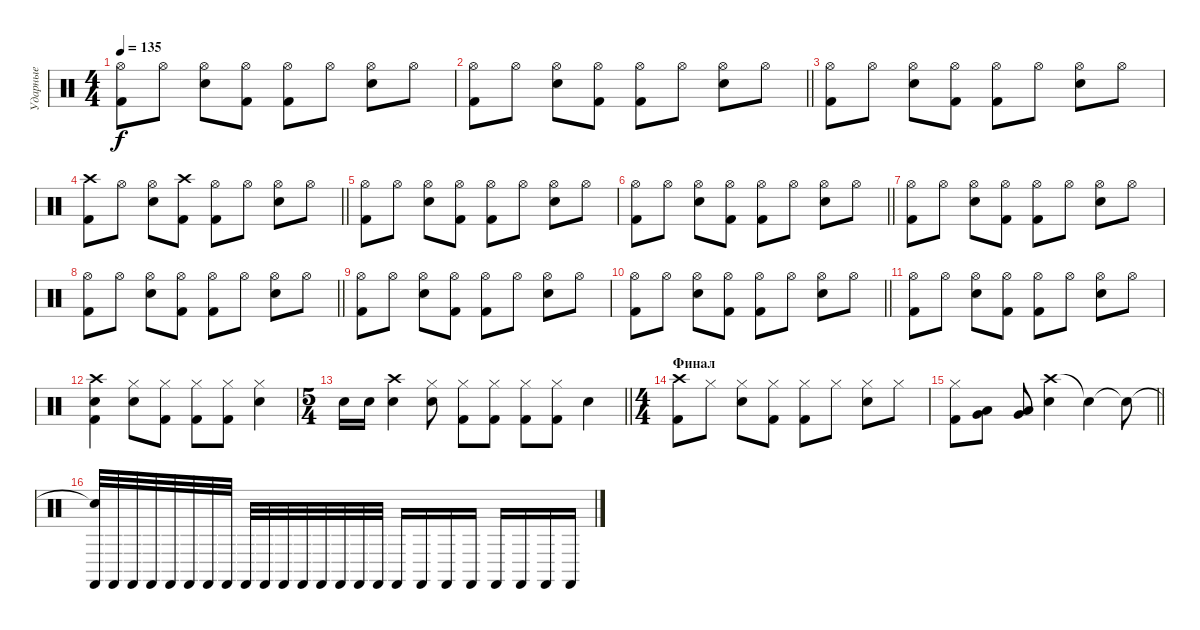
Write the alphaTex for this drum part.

\track ("Ударные" "Ударные") {instrument percussion}
\staff {score}
\articulation defaults
\ts (4 4)
\tempo 135
\clef neutral
\ks c
("Hi-Hat (open)" "Kick (hit) 2").8{dy f} "Hi-Hat (open)".8 ("Hi-Hat (open)" "Snare (hit) 2").8 ("Hi-Hat (open)" "Kick (hit) 2").8 ("Hi-Hat (open)" "Kick (hit) 2").8 "Hi-Hat (open)".8 ("Hi-Hat (open)" "Snare (hit) 2").8 "Hi-Hat (open)".8 |
\barLineRight lightlight
("Hi-Hat (open)" "Kick (hit) 2").8 "Hi-Hat (open)".8 ("Hi-Hat (open)" "Snare (hit) 2").8 ("Hi-Hat (open)" "Kick (hit) 2").8 ("Hi-Hat (open)" "Kick (hit) 2").8 "Hi-Hat (open)".8 ("Hi-Hat (open)" "Snare (hit) 2").8 "Hi-Hat (open)".8 |
("Hi-Hat (open)" "Kick (hit) 2").8 "Hi-Hat (open)".8 ("Hi-Hat (open)" "Snare (hit) 2").8 ("Hi-Hat (open)" "Kick (hit) 2").8 ("Hi-Hat (open)" "Kick (hit) 2").8 "Hi-Hat (open)".8 ("Hi-Hat (open)" "Snare (hit) 2").8 "Hi-Hat (open)".8 |
\barLineRight lightlight
("Crash high (hit)" "Kick (hit) 2").8 "Hi-Hat (open)".8 ("Hi-Hat (open)" "Snare (hit) 2").8 ("Crash high (hit)" "Kick (hit) 2").8 ("Hi-Hat (open)" "Kick (hit) 2").8 "Hi-Hat (open)".8 ("Hi-Hat (open)" "Snare (hit) 2").8 "Hi-Hat (open)".8 |
("Hi-Hat (open)" "Kick (hit) 2").8 "Hi-Hat (open)".8 ("Hi-Hat (open)" "Snare (hit) 2").8 ("Hi-Hat (open)" "Kick (hit) 2").8 ("Hi-Hat (open)" "Kick (hit) 2").8 "Hi-Hat (open)".8 ("Hi-Hat (open)" "Snare (hit) 2").8 "Hi-Hat (open)".8 |
\barLineRight lightlight
("Hi-Hat (open)" "Kick (hit) 2").8 "Hi-Hat (open)".8 ("Hi-Hat (open)" "Snare (hit) 2").8 ("Hi-Hat (open)" "Kick (hit) 2").8 ("Hi-Hat (open)" "Kick (hit) 2").8 "Hi-Hat (open)".8 ("Hi-Hat (open)" "Snare (hit) 2").8 "Hi-Hat (open)".8 |
("Hi-Hat (open)" "Kick (hit) 2").8 "Hi-Hat (open)".8 ("Hi-Hat (open)" "Snare (hit) 2").8 ("Hi-Hat (open)" "Kick (hit) 2").8 ("Hi-Hat (open)" "Kick (hit) 2").8 "Hi-Hat (open)".8 ("Hi-Hat (open)" "Snare (hit) 2").8 "Hi-Hat (open)".8 |
\barLineRight lightlight
("Hi-Hat (open)" "Kick (hit) 2").8 "Hi-Hat (open)".8 ("Hi-Hat (open)" "Snare (hit) 2").8 ("Hi-Hat (open)" "Kick (hit) 2").8 ("Hi-Hat (open)" "Kick (hit) 2").8 "Hi-Hat (open)".8 ("Hi-Hat (open)" "Snare (hit) 2").8 "Hi-Hat (open)".8 |
("Hi-Hat (open)" "Kick (hit) 2").8 "Hi-Hat (open)".8 ("Hi-Hat (open)" "Snare (hit) 2").8 ("Hi-Hat (open)" "Kick (hit) 2").8 ("Hi-Hat (open)" "Kick (hit) 2").8 "Hi-Hat (open)".8 ("Hi-Hat (open)" "Snare (hit) 2").8 "Hi-Hat (open)".8 |
\barLineRight lightlight
("Hi-Hat (open)" "Kick (hit) 2").8 "Hi-Hat (open)".8 ("Hi-Hat (open)" "Snare (hit) 2").8 ("Hi-Hat (open)" "Kick (hit) 2").8 ("Hi-Hat (open)" "Kick (hit) 2").8 "Hi-Hat (open)".8 ("Hi-Hat (open)" "Snare (hit) 2").8 "Hi-Hat (open)".8 |
("Hi-Hat (open)" "Kick (hit) 2").8 "Hi-Hat (open)".8 ("Hi-Hat (open)" "Snare (hit) 2").8 ("Hi-Hat (open)" "Kick (hit) 2").8 ("Hi-Hat (open)" "Kick (hit) 2").8 "Hi-Hat (open)".8 ("Hi-Hat (open)" "Snare (hit) 2").8 "Hi-Hat (open)".8 |
("Crash high (hit)" "Snare (hit) 2" "Kick (hit) 2").4 ("Hi-Hat (closed)" "Snare (hit) 2").8 ("Hi-Hat (closed)" "Kick (hit) 2").8 ("Hi-Hat (closed)" "Kick (hit) 2").8 ("Hi-Hat (closed)" "Kick (hit) 2").8 ("Hi-Hat (closed)" "Snare (hit) 2").4 |
\ts (5 4)
\barLineRight lightlight "Snare (hit) 2".16 "Snare (hit) 2".16
("Crash high (hit)" "Snare (hit) 2").4 ("Hi-Hat (closed)" "Snare (hit) 2").8 ("Hi-Hat (closed)" "Kick (hit) 2").8 ("Hi-Hat (closed)" "Kick (hit) 2").8 ("Hi-Hat (closed)" "Kick (hit) 2").8 ("Hi-Hat (closed)" "Kick (hit) 2").8 "Snare (hit) 2".4 |
\ts (4 4)
\section ("" "Финал")
("Crash high (hit)" "Kick (hit) 2").8 "Hi-Hat (closed)".8 ("Hi-Hat (closed)" "Snare (hit) 2").8 ("Hi-Hat (closed)" "Kick (hit) 2").8 ("Hi-Hat (closed)" "Kick (hit) 2").8 "Hi-Hat (closed)".8 ("Hi-Hat (closed)" "Snare (hit) 2").8 "Hi-Hat (closed)".8 |
\barLineRight lightlight
("Hi-Hat (closed)" "Kick (hit) 2").8 ("Very Low Tom (hit)" "Low Tom (hit)").8{bu 480} ("Low Floor Tom (hit)" "Very Low Tom (hit)").8{bu 480} ("Crash high (hit)" "Snare (hit) 2").4 "Snare (hit)"{t}.4 "Snare (hit)"{t}.8 |
("Snare (hit)"{t} "Castanets (hit)").32 "Castanets (hit)".32 "Castanets (hit)".32 "Castanets (hit)".32 "Castanets (hit)".32 "Castanets (hit)".32 "Castanets (hit)".32 "Castanets (hit)".32 "Castanets (hit)".32 "Castanets (hit)".32 "Castanets (hit)".32 "Castanets (hit)".32 "Castanets (hit)".32 "Castanets (hit)".32 "Castanets (hit)".32 "Castanets (hit)".32 "Castanets (hit)".16 "Castanets (hit)".16 "Castanets (hit)".16 "Castanets (hit)".16 "Castanets (hit)".16 "Castanets (hit)".16 "Castanets (hit)".16 "Castanets (hit)".16
